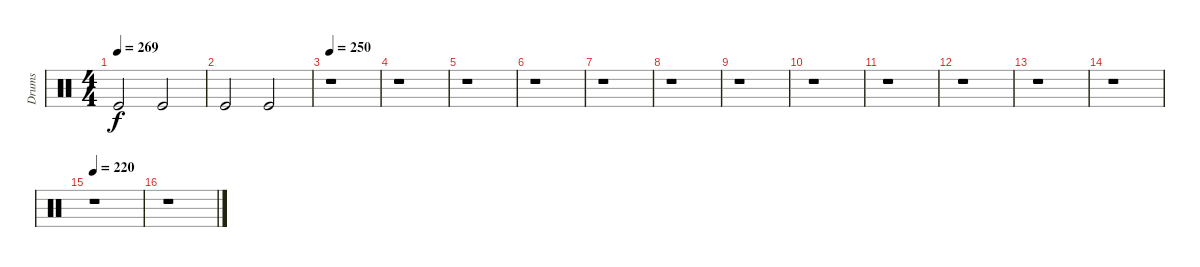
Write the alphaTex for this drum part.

\track ("Drums" "Drums") {instrument percussion}
\staff {score}
\articulation defaults
\ts (4 4)
\tempo 269
\clef neutral
\ks c "Kick (hit)".2{dy f} "Kick (hit)".2
|
"Kick (hit)".2 "Kick (hit)".2 |
\tempo 250
r.1 |
r.1 |
r.1 |
r.1 |
r.1 |
r.1 |
r.1 |
r.1 |
r.1 |
r.1 |
r.1 |
r.1 |
\tempo 220
r.1 |
r.1
